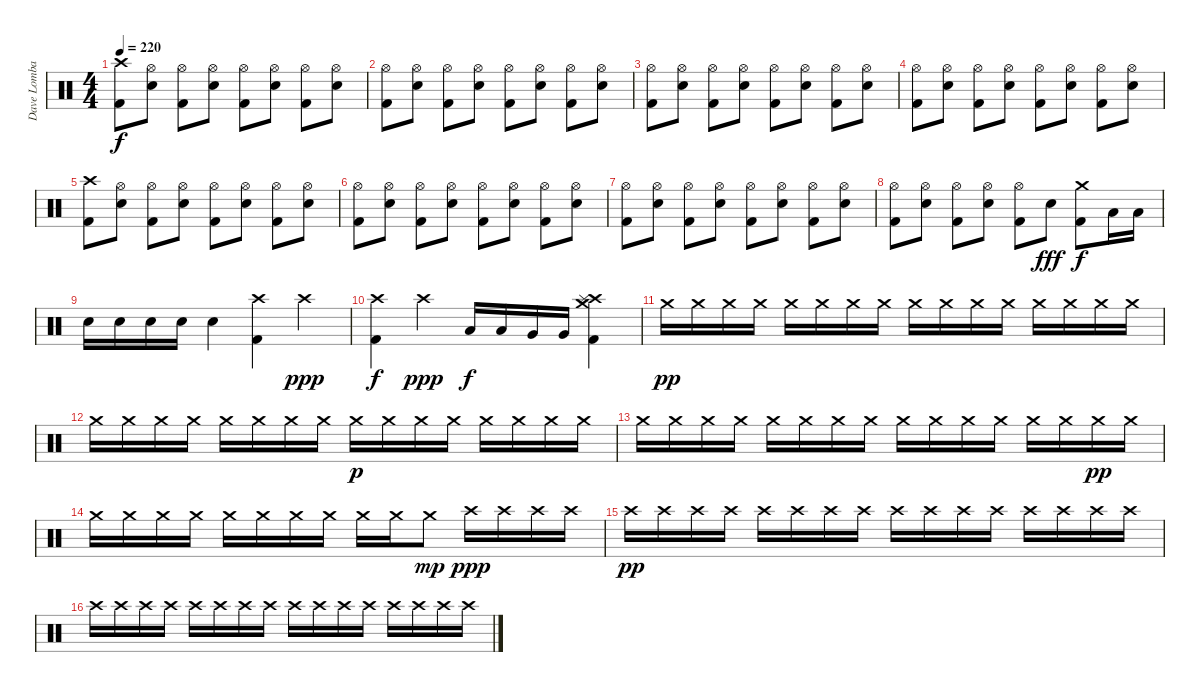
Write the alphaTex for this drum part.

\track ("Dave Lombardo" "Dave Lomba") {instrument percussion}
\staff {score}
\articulation defaults
\ts (4 4)
\tempo 220
\clef neutral
\ks c
("Crash high (hit)" "Kick (hit) 2").8{dy f} ("Hi-Hat (open)" "Electric Snare (hit)").8 ("Hi-Hat (open)" "Kick (hit) 2").8 ("Hi-Hat (open)" "Electric Snare (hit)").8 ("Hi-Hat (open)" "Kick (hit) 2").8 ("Hi-Hat (open)" "Electric Snare (hit)").8 ("Hi-Hat (open)" "Kick (hit) 2").8 ("Hi-Hat (open)" "Electric Snare (hit)").8 |
("Hi-Hat (open)" "Kick (hit) 2").8 ("Hi-Hat (open)" "Electric Snare (hit)").8 ("Hi-Hat (open)" "Kick (hit) 2").8 ("Hi-Hat (open)" "Electric Snare (hit)").8 ("Hi-Hat (open)" "Kick (hit) 2").8 ("Hi-Hat (open)" "Electric Snare (hit)").8 ("Hi-Hat (open)" "Kick (hit) 2").8 ("Hi-Hat (open)" "Electric Snare (hit)").8 |
("Hi-Hat (open)" "Kick (hit) 2").8 ("Hi-Hat (open)" "Electric Snare (hit)").8 ("Hi-Hat (open)" "Kick (hit) 2").8 ("Hi-Hat (open)" "Electric Snare (hit)").8 ("Hi-Hat (open)" "Kick (hit) 2").8 ("Hi-Hat (open)" "Electric Snare (hit)").8 ("Hi-Hat (open)" "Kick (hit) 2").8 ("Hi-Hat (open)" "Electric Snare (hit)").8 |
("Hi-Hat (open)" "Kick (hit) 2").8 ("Hi-Hat (open)" "Electric Snare (hit)").8 ("Hi-Hat (open)" "Kick (hit) 2").8 ("Hi-Hat (open)" "Electric Snare (hit)").8 ("Hi-Hat (open)" "Kick (hit) 2").8 ("Hi-Hat (open)" "Electric Snare (hit)").8 ("Hi-Hat (open)" "Kick (hit) 2").8 ("Hi-Hat (open)" "Electric Snare (hit)").8 |
("Crash high (hit)" "Kick (hit) 2").8 ("Hi-Hat (open)" "Electric Snare (hit)").8 ("Hi-Hat (open)" "Kick (hit) 2").8 ("Hi-Hat (open)" "Electric Snare (hit)").8 ("Hi-Hat (open)" "Kick (hit) 2").8 ("Hi-Hat (open)" "Electric Snare (hit)").8 ("Hi-Hat (open)" "Kick (hit) 2").8 ("Hi-Hat (open)" "Electric Snare (hit)").8 |
("Hi-Hat (open)" "Kick (hit) 2").8 ("Hi-Hat (open)" "Electric Snare (hit)").8 ("Hi-Hat (open)" "Kick (hit) 2").8 ("Hi-Hat (open)" "Electric Snare (hit)").8 ("Hi-Hat (open)" "Kick (hit) 2").8 ("Hi-Hat (open)" "Electric Snare (hit)").8 ("Hi-Hat (open)" "Kick (hit) 2").8 ("Hi-Hat (open)" "Electric Snare (hit)").8 |
("Hi-Hat (open)" "Kick (hit) 2").8 ("Hi-Hat (open)" "Electric Snare (hit)").8 ("Hi-Hat (open)" "Kick (hit) 2").8 ("Hi-Hat (open)" "Electric Snare (hit)").8 ("Hi-Hat (open)" "Kick (hit) 2").8 ("Hi-Hat (open)" "Electric Snare (hit)").8 ("Hi-Hat (open)" "Kick (hit) 2").8 ("Hi-Hat (open)" "Electric Snare (hit)").8 |
("Hi-Hat (open)" "Kick (hit) 2").8 ("Hi-Hat (open)" "Electric Snare (hit)").8 ("Hi-Hat (open)" "Kick (hit) 2").8 ("Hi-Hat (open)" "Electric Snare (hit)").8 ("Hi-Hat (open)" "Kick (hit) 2").8 "Electric Snare (hit)".8{dy fff} ("Crash medium (hit)" "Kick (hit) 2").8{dy f} "Low Tom (hit)".16 "Low Tom (hit)".16 |
"Electric Snare (hit)".16 "Electric Snare (hit)".16 "Electric Snare (hit)".16 "Electric Snare (hit)".16 "Electric Snare (hit)".4 ("Crash high (hit)" "Kick (hit) 2").4 "Crash high (hit)".4{dy ppp} |
("Crash high (hit)" "Kick (hit) 2").4{dy f} "Crash high (hit)".4{dy ppp} "Low Tom (hit)".16{dy f} "Low Tom (hit)".16 "Very Low Tom (hit)".16 "Very Low Tom (hit)".16 ("Crash high (hit)" "Splash (hit)" "Crash medium (hit)" "Kick (hit) 2").4 |
"Crash medium (hit)".16{dy pp} "Crash medium (hit)".16 "Crash medium (hit)".16 "Crash medium (hit)".16 "Crash medium (hit)".16 "Crash medium (hit)".16 "Crash medium (hit)".16 "Crash medium (hit)".16 "Crash medium (hit)".16 "Crash medium (hit)".16 "Crash medium (hit)".16 "Crash medium (hit)".16 "Crash medium (hit)".16 "Crash medium (hit)".16 "Crash medium (hit)".16 "Crash medium (hit)".16 |
"Crash medium (hit)".16 "Crash medium (hit)".16 "Crash medium (hit)".16 "Crash medium (hit)".16 "Crash medium (hit)".16 "Crash medium (hit)".16 "Crash medium (hit)".16 "Crash medium (hit)".16 "Crash medium (hit)".16{dy p} "Crash medium (hit)".16 "Crash medium (hit)".16 "Crash medium (hit)".16 "Crash medium (hit)".16 "Crash medium (hit)".16 "Crash medium (hit)".16 "Crash medium (hit)".16 |
"Crash medium (hit)".16 "Crash medium (hit)".16 "Crash medium (hit)".16 "Crash medium (hit)".16 "Crash medium (hit)".16 "Crash medium (hit)".16 "Crash medium (hit)".16 "Crash medium (hit)".16 "Crash medium (hit)".16 "Crash medium (hit)".16 "Crash medium (hit)".16 "Crash medium (hit)".16 "Crash medium (hit)".16 "Crash medium (hit)".16 "Crash medium (hit)".16{dy pp} "Crash medium (hit)".16 |
"Crash medium (hit)".16 "Crash medium (hit)".16 "Crash medium (hit)".16 "Crash medium (hit)".16 "Crash medium (hit)".16 "Crash medium (hit)".16 "Crash medium (hit)".16 "Crash medium (hit)".16 "Crash medium (hit)".16 "Crash medium (hit)".16 "Crash medium (hit)".8{dy mp} "Crash high (hit)".16{dy ppp} "Crash high (hit)".16 "Crash high (hit)".16 "Crash high (hit)".16 |
"Crash high (hit)".16{dy pp} "Crash high (hit)".16 "Crash high (hit)".16 "Crash high (hit)".16 "Crash high (hit)".16 "Crash high (hit)".16 "Crash high (hit)".16 "Crash high (hit)".16 "Crash high (hit)".16 "Crash high (hit)".16 "Crash high (hit)".16 "Crash high (hit)".16 "Crash high (hit)".16 "Crash high (hit)".16 "Crash high (hit)".16 "Crash high (hit)".16 |
"Crash high (hit)".16 "Crash high (hit)".16 "Crash high (hit)".16 "Crash high (hit)".16 "Crash high (hit)".16 "Crash high (hit)".16 "Crash high (hit)".16 "Crash high (hit)".16 "Crash high (hit)".16 "Crash high (hit)".16 "Crash high (hit)".16 "Crash high (hit)".16 "Crash high (hit)".16 "Crash high (hit)".16 "Crash high (hit)".16 "Crash high (hit)".16
